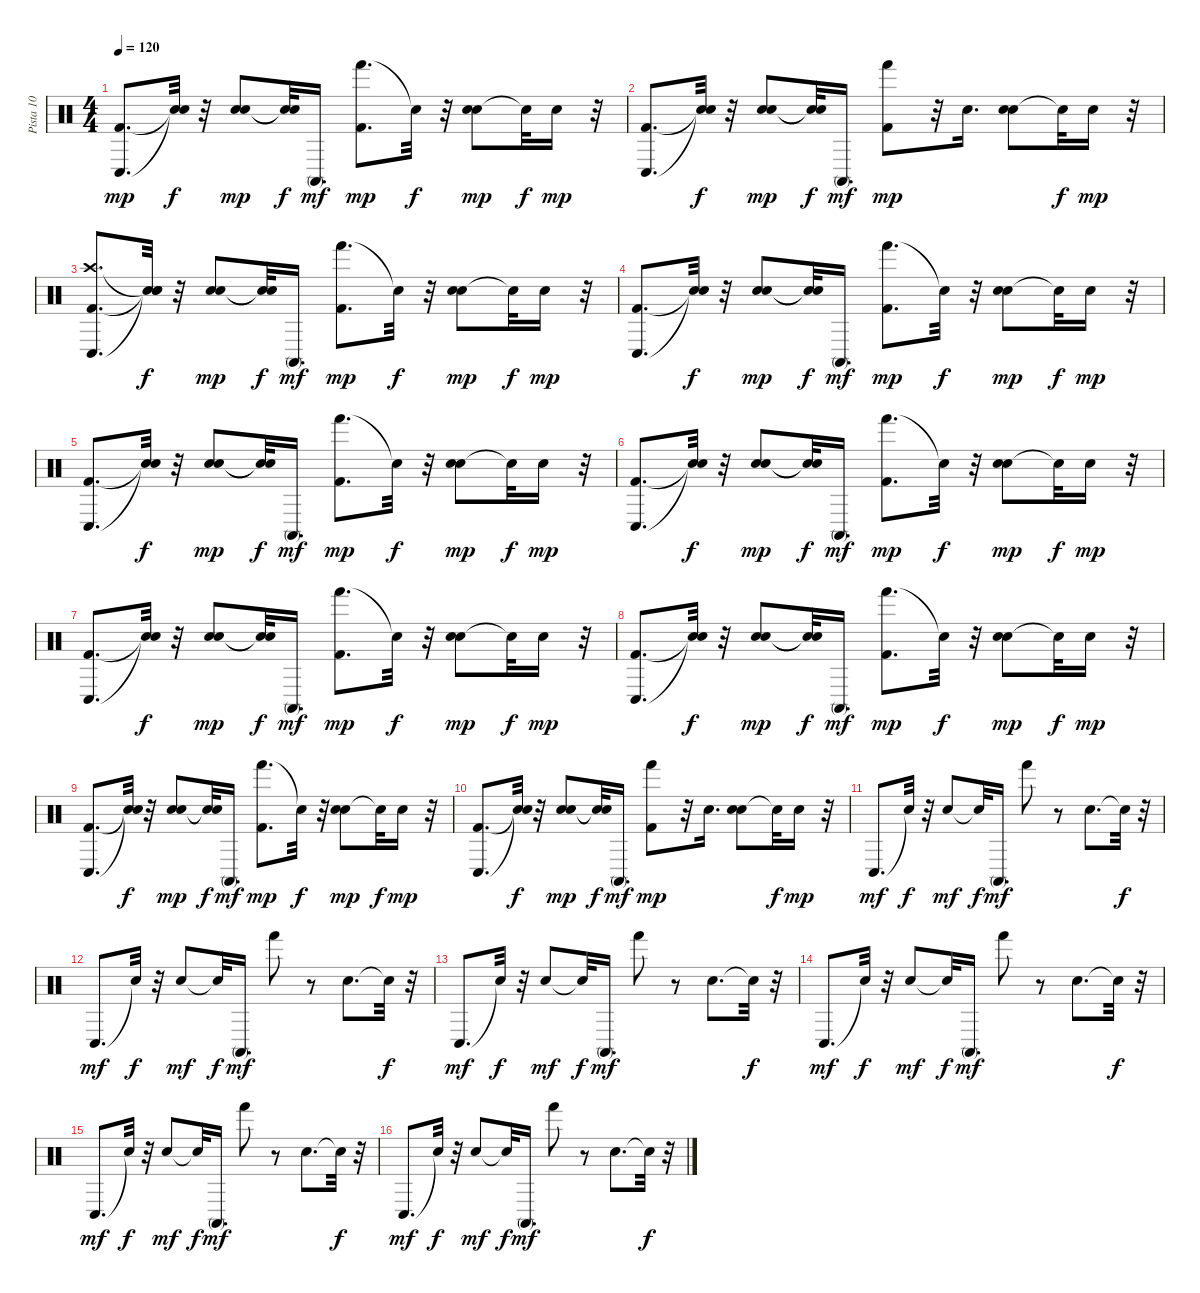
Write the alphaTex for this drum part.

\track ("Pista 10" "Pista 10") {instrument percussion}
\staff {score}
\articulation defaults
\ts (4 4)
\tempo 120
\clef neutral
\ks c
("Conga low (hit)" "Kick (hit) 2").8{d dy mp} ("Snare (hit)"{t} "Snare (hit)"{t}).32{dy f} r.32 ("Hand Clap (hit)" "Electric Snare (hit)").8{dy mp} ("Snare (hit)"{t} "Snare (hit)"{t}).32{dy f} "Conga high (mute)".16{d dy mf} ("Hand (hit)" "Kick (hit) 2").8{d dy mp} "Snare (hit)"{t}.32{dy f} r.32 ("Hand Clap (hit)" "Electric Snare (hit)").8{dy mp} "Snare (hit)"{t}.32{dy f} "Electric Snare (hit)".16{dy mp} r.32 |
("Conga low (hit)" "Kick (hit) 2").8{d} ("Snare (hit)"{t} "Snare (hit)"{t}).32{dy f} r.32 ("Hand Clap (hit)" "Electric Snare (hit)").8{dy mp} ("Snare (hit)"{t} "Snare (hit)"{t}).32{dy f} "Conga high (mute)".16{d dy mf} ("Hand (hit)" "Kick (hit) 2").8{dy mp} r.32 "Electric Snare (hit)".16{d} ("Hand Clap (hit)" "Electric Snare (hit)").8 "Snare (hit)"{t}.32{dy f} "Electric Snare (hit)".16{dy mp} r.32 |
("Conga low (hit)" "Kick (hit) 2" "Crash high (hit)").8{d} ("Snare (hit)"{t} "Snare (hit)"{t} "Snare (hit)"{t}).32{dy f} r.32 ("Hand Clap (hit)" "Electric Snare (hit)").8{dy mp} ("Snare (hit)"{t} "Snare (hit)"{t}).32{dy f} "Conga high (mute)".16{d dy mf} ("Hand (hit)" "Kick (hit) 2").8{d dy mp} "Snare (hit)"{t}.32{dy f} r.32 ("Hand Clap (hit)" "Electric Snare (hit)").8{dy mp} "Snare (hit)"{t}.32{dy f} "Electric Snare (hit)".16{dy mp} r.32 |
("Conga low (hit)" "Kick (hit) 2").8{d} ("Snare (hit)"{t} "Snare (hit)"{t}).32{dy f} r.32 ("Hand Clap (hit)" "Electric Snare (hit)").8{dy mp} ("Snare (hit)"{t} "Snare (hit)"{t}).32{dy f} "Conga high (mute)".16{d dy mf} ("Hand (hit)" "Kick (hit) 2").8{d dy mp} "Snare (hit)"{t}.32{dy f} r.32 ("Hand Clap (hit)" "Electric Snare (hit)").8{dy mp} "Snare (hit)"{t}.32{dy f} "Electric Snare (hit)".16{dy mp} r.32 |
("Conga low (hit)" "Kick (hit) 2").8{d} ("Snare (hit)"{t} "Snare (hit)"{t}).32{dy f} r.32 ("Hand Clap (hit)" "Electric Snare (hit)").8{dy mp} ("Snare (hit)"{t} "Snare (hit)"{t}).32{dy f} "Conga high (mute)".16{d dy mf} ("Hand (hit)" "Kick (hit) 2").8{d dy mp} "Snare (hit)"{t}.32{dy f} r.32 ("Hand Clap (hit)" "Electric Snare (hit)").8{dy mp} "Snare (hit)"{t}.32{dy f} "Electric Snare (hit)".16{dy mp} r.32 |
("Conga low (hit)" "Kick (hit) 2").8{d} ("Snare (hit)"{t} "Snare (hit)"{t}).32{dy f} r.32 ("Hand Clap (hit)" "Electric Snare (hit)").8{dy mp} ("Snare (hit)"{t} "Snare (hit)"{t}).32{dy f} "Conga high (mute)".16{d dy mf} ("Hand (hit)" "Kick (hit) 2").8{d dy mp} "Snare (hit)"{t}.32{dy f} r.32 ("Hand Clap (hit)" "Electric Snare (hit)").8{dy mp} "Snare (hit)"{t}.32{dy f} "Electric Snare (hit)".16{dy mp} r.32 |
("Conga low (hit)" "Kick (hit) 2").8{d} ("Snare (hit)"{t} "Snare (hit)"{t}).32{dy f} r.32 ("Hand Clap (hit)" "Electric Snare (hit)").8{dy mp} ("Snare (hit)"{t} "Snare (hit)"{t}).32{dy f} "Conga high (mute)".16{d dy mf} ("Hand (hit)" "Kick (hit) 2").8{d dy mp} "Snare (hit)"{t}.32{dy f} r.32 ("Hand Clap (hit)" "Electric Snare (hit)").8{dy mp} "Snare (hit)"{t}.32{dy f} "Electric Snare (hit)".16{dy mp} r.32 |
("Conga low (hit)" "Kick (hit) 2").8{d} ("Snare (hit)"{t} "Snare (hit)"{t}).32{dy f} r.32 ("Hand Clap (hit)" "Electric Snare (hit)").8{dy mp} ("Snare (hit)"{t} "Snare (hit)"{t}).32{dy f} "Conga high (mute)".16{d dy mf} ("Hand (hit)" "Kick (hit) 2").8{d dy mp} "Snare (hit)"{t}.32{dy f} r.32 ("Hand Clap (hit)" "Electric Snare (hit)").8{dy mp} "Snare (hit)"{t}.32{dy f} "Electric Snare (hit)".16{dy mp} r.32 |
("Conga low (hit)" "Kick (hit) 2").8{d} ("Snare (hit)"{t} "Snare (hit)"{t}).32{dy f} r.32 ("Hand Clap (hit)" "Electric Snare (hit)").8{dy mp} ("Snare (hit)"{t} "Snare (hit)"{t}).32{dy f} "Conga high (mute)".16{d dy mf} ("Hand (hit)" "Kick (hit) 2").8{d dy mp} "Snare (hit)"{t}.32{dy f} r.32 ("Hand Clap (hit)" "Electric Snare (hit)").8{dy mp} "Snare (hit)"{t}.32{dy f} "Electric Snare (hit)".16{dy mp} r.32 |
("Conga low (hit)" "Kick (hit) 2").8{d} ("Snare (hit)"{t} "Snare (hit)"{t}).32{dy f} r.32 ("Hand Clap (hit)" "Electric Snare (hit)").8{dy mp} ("Snare (hit)"{t} "Snare (hit)"{t}).32{dy f} "Conga high (mute)".16{d dy mf} ("Hand (hit)" "Kick (hit) 2").8{dy mp} r.32 "Electric Snare (hit)".16{d} ("Hand Clap (hit)" "Electric Snare (hit)").8 "Snare (hit)"{t}.32{dy f} "Electric Snare (hit)".16{dy mp} r.32 |
"Conga low (hit)".8{d dy mf} "Snare (hit)"{t}.32{dy f} r.32 "Hand Clap (hit)".8{dy mf} "Snare (hit)"{t}.32{dy f} "Conga high (mute)".16{d dy mf} "Hand (hit)".8 r.8 "Hand Clap (hit)".8{d} "Snare (hit)"{t}.32{dy f} r.32 |
"Conga low (hit)".8{d dy mf} "Snare (hit)"{t}.32{dy f} r.32 "Hand Clap (hit)".8{dy mf} "Snare (hit)"{t}.32{dy f} "Conga high (mute)".16{d dy mf} "Hand (hit)".8 r.8 "Hand Clap (hit)".8{d} "Snare (hit)"{t}.32{dy f} r.32 |
"Conga low (hit)".8{d dy mf} "Snare (hit)"{t}.32{dy f} r.32 "Hand Clap (hit)".8{dy mf} "Snare (hit)"{t}.32{dy f} "Conga high (mute)".16{d dy mf} "Hand (hit)".8 r.8 "Hand Clap (hit)".8{d} "Snare (hit)"{t}.32{dy f} r.32 |
"Conga low (hit)".8{d dy mf} "Snare (hit)"{t}.32{dy f} r.32 "Hand Clap (hit)".8{dy mf} "Snare (hit)"{t}.32{dy f} "Conga high (mute)".16{d dy mf} "Hand (hit)".8 r.8 "Hand Clap (hit)".8{d} "Snare (hit)"{t}.32{dy f} r.32 |
"Conga low (hit)".8{d dy mf} "Snare (hit)"{t}.32{dy f} r.32 "Hand Clap (hit)".8{dy mf} "Snare (hit)"{t}.32{dy f} "Conga high (mute)".16{d dy mf} "Hand (hit)".8 r.8 "Hand Clap (hit)".8{d} "Snare (hit)"{t}.32{dy f} r.32 |
"Conga low (hit)".8{d dy mf} "Snare (hit)"{t}.32{dy f} r.32 "Hand Clap (hit)".8{dy mf} "Snare (hit)"{t}.32{dy f} "Conga high (mute)".16{d dy mf} "Hand (hit)".8 r.8 "Hand Clap (hit)".8{d} "Snare (hit)"{t}.32{dy f} r.32
